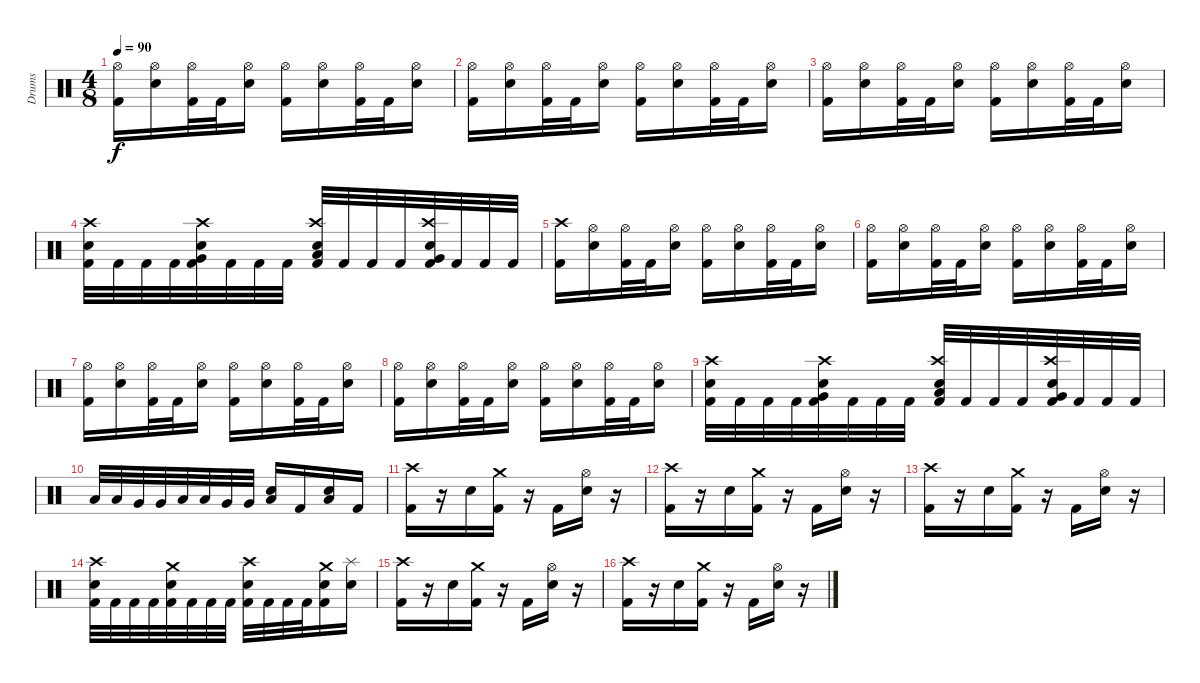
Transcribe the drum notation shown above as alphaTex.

\track ("Drums" "Drums") {instrument percussion}
\staff {score}
\articulation defaults
\ts (4 8)
\tempo 90
\clef neutral
\ks c
("Kick (hit) 2" "Hi-Hat (open)").16{dy f} ("Electric Snare (hit)" "Hi-Hat (open)").16 ("Kick (hit) 2" "Hi-Hat (open)").32 "Kick (hit) 2".32 ("Electric Snare (hit)" "Hi-Hat (open)").16 ("Kick (hit) 2" "Hi-Hat (open)").16 ("Electric Snare (hit)" "Hi-Hat (open)").16 ("Kick (hit) 2" "Hi-Hat (open)").32 "Kick (hit) 2".32 ("Electric Snare (hit)" "Hi-Hat (open)").16 |
("Kick (hit) 2" "Hi-Hat (open)").16 ("Electric Snare (hit)" "Hi-Hat (open)").16 ("Kick (hit) 2" "Hi-Hat (open)").32 "Kick (hit) 2".32 ("Electric Snare (hit)" "Hi-Hat (open)").16 ("Kick (hit) 2" "Hi-Hat (open)").16 ("Electric Snare (hit)" "Hi-Hat (open)").16 ("Kick (hit) 2" "Hi-Hat (open)").32 "Kick (hit) 2".32 ("Electric Snare (hit)" "Hi-Hat (open)").16 |
("Kick (hit) 2" "Hi-Hat (open)").16 ("Electric Snare (hit)" "Hi-Hat (open)").16 ("Kick (hit) 2" "Hi-Hat (open)").32 "Kick (hit) 2".32 ("Electric Snare (hit)" "Hi-Hat (open)").16 ("Kick (hit) 2" "Hi-Hat (open)").16 ("Electric Snare (hit)" "Hi-Hat (open)").16 ("Kick (hit) 2" "Hi-Hat (open)").32 "Kick (hit) 2".32 ("Electric Snare (hit)" "Hi-Hat (open)").16 |
("Kick (hit) 2" "Electric Snare (hit)" "Crash high (hit)").32 "Kick (hit) 2".32 "Kick (hit) 2".32 "Kick (hit) 2".32 ("Electric Snare (hit)" "Very Low Tom (hit)" "Kick (hit) 2" "Crash high (hit)").32 "Kick (hit) 2".32 "Kick (hit) 2".32 "Kick (hit) 2".32 ("Electric Snare (hit)" "Low Floor Tom (hit)" "Kick (hit) 2" "Crash high (hit)").32 "Kick (hit) 2".32 "Kick (hit) 2".32 "Kick (hit) 2".32 ("Electric Snare (hit)" "Very Low Tom (hit)" "Kick (hit) 2" "Crash high (hit)").32 "Kick (hit) 2".32 "Kick (hit) 2".32 "Kick (hit) 2".32 |
("Kick (hit) 2" "Crash high (hit)").16 ("Electric Snare (hit)" "Hi-Hat (open)").16 ("Kick (hit) 2" "Hi-Hat (open)").32 "Kick (hit) 2".32 ("Electric Snare (hit)" "Hi-Hat (open)").16 ("Kick (hit) 2" "Hi-Hat (open)").16 ("Electric Snare (hit)" "Hi-Hat (open)").16 ("Kick (hit) 2" "Hi-Hat (open)").32 "Kick (hit) 2".32 ("Electric Snare (hit)" "Hi-Hat (open)").16 |
("Kick (hit) 2" "Hi-Hat (open)").16 ("Electric Snare (hit)" "Hi-Hat (open)").16 ("Kick (hit) 2" "Hi-Hat (open)").32 "Kick (hit) 2".32 ("Electric Snare (hit)" "Hi-Hat (open)").16 ("Kick (hit) 2" "Hi-Hat (open)").16 ("Electric Snare (hit)" "Hi-Hat (open)").16 ("Kick (hit) 2" "Hi-Hat (open)").32 "Kick (hit) 2".32 ("Electric Snare (hit)" "Hi-Hat (open)").16 |
("Kick (hit) 2" "Hi-Hat (open)").16 ("Electric Snare (hit)" "Hi-Hat (open)").16 ("Kick (hit) 2" "Hi-Hat (open)").32 "Kick (hit) 2".32 ("Electric Snare (hit)" "Hi-Hat (open)").16 ("Kick (hit) 2" "Hi-Hat (open)").16 ("Electric Snare (hit)" "Hi-Hat (open)").16 ("Kick (hit) 2" "Hi-Hat (open)").32 "Kick (hit) 2".32 ("Electric Snare (hit)" "Hi-Hat (open)").16 |
("Kick (hit) 2" "Hi-Hat (open)").16 ("Electric Snare (hit)" "Hi-Hat (open)").16 ("Kick (hit) 2" "Hi-Hat (open)").32 "Kick (hit) 2".32 ("Electric Snare (hit)" "Hi-Hat (open)").16 ("Kick (hit) 2" "Hi-Hat (open)").16 ("Electric Snare (hit)" "Hi-Hat (open)").16 ("Kick (hit) 2" "Hi-Hat (open)").32 "Kick (hit) 2".32 ("Electric Snare (hit)" "Hi-Hat (open)").16 |
("Kick (hit) 2" "Electric Snare (hit)" "Crash high (hit)").32 "Kick (hit) 2".32 "Kick (hit) 2".32 "Kick (hit) 2".32 ("Electric Snare (hit)" "Very Low Tom (hit)" "Kick (hit) 2" "Crash high (hit)").32 "Kick (hit) 2".32 "Kick (hit) 2".32 "Kick (hit) 2".32 ("Electric Snare (hit)" "Low Floor Tom (hit)" "Kick (hit) 2" "Crash high (hit)").32 "Kick (hit) 2".32 "Kick (hit) 2".32 "Kick (hit) 2".32 ("Electric Snare (hit)" "Very Low Tom (hit)" "Kick (hit) 2" "Crash high (hit)").32 "Kick (hit) 2".32 "Kick (hit) 2".32 "Kick (hit) 2".32 |
"Low Tom (hit)".32 "Low Tom (hit)".32 "Very Low Tom (hit)".32 "Very Low Tom (hit)".32 "Low Tom (hit)".32 "Low Tom (hit)".32 "Very Low Tom (hit)".32 "Very Low Tom (hit)".32 ("Electric Snare (hit)" "Low Floor Tom (hit)").16 "Kick (hit) 2".16 ("Electric Snare (hit)" "Low Floor Tom (hit)").16 "Kick (hit) 2".16 |
("Kick (hit) 2" "Crash high (hit)").16 r.16 "Electric Snare (hit)".16 ("Kick (hit) 2" "Crash medium (hit)").16 r.16 "Kick (hit) 2".16 ("Electric Snare (hit)" "Hi-Hat (open)").16 r.16 |
("Kick (hit) 2" "Crash high (hit)").16 r.16 "Electric Snare (hit)".16 ("Kick (hit) 2" "Crash medium (hit)").16 r.16 "Kick (hit) 2".16 ("Electric Snare (hit)" "Hi-Hat (open)").16 r.16 |
("Kick (hit) 2" "Crash high (hit)").16 r.16 "Electric Snare (hit)".16 ("Kick (hit) 2" "Crash medium (hit)").16 r.16 "Kick (hit) 2".16 ("Electric Snare (hit)" "Hi-Hat (open)").16 r.16 |
("Kick (hit) 2" "Crash high (hit)" "Electric Snare (hit)").32 "Kick (hit) 2".32 "Kick (hit) 2".32 "Kick (hit) 2".32 ("Kick (hit) 2" "Crash medium (hit)" "Electric Snare (hit)").32 "Kick (hit) 2".32 "Kick (hit) 2".32 "Kick (hit) 2".32 ("Kick (hit) 2" "Crash high (hit)" "Electric Snare (hit)").32 "Kick (hit) 2".32 "Kick (hit) 2".32 "Kick (hit) 2".32 ("Kick (hit) 2" "Crash medium (hit)" "Electric Snare (hit)").16 ("Electric Snare (hit)" "Splash (hit)").16 |
("Kick (hit) 2" "Crash high (hit)").16 r.16 "Electric Snare (hit)".16 ("Kick (hit) 2" "Crash medium (hit)").16 r.16 "Kick (hit) 2".16 ("Electric Snare (hit)" "Hi-Hat (open)").16 r.16 |
("Kick (hit) 2" "Crash high (hit)").16 r.16 "Electric Snare (hit)".16 ("Kick (hit) 2" "Crash medium (hit)").16 r.16 "Kick (hit) 2".16 ("Electric Snare (hit)" "Hi-Hat (open)").16 r.16
